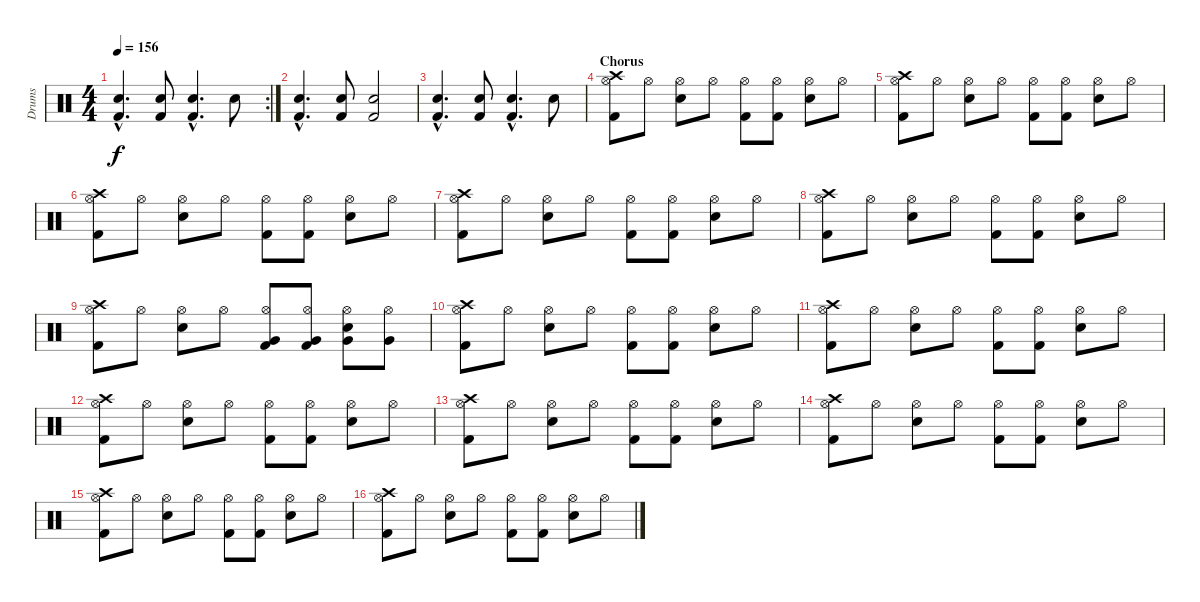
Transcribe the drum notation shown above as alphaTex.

\track ("Drums" "Drums") {instrument percussion}
\staff {score}
\articulation defaults
\rc 2
\ts (4 4)
\tempo 156
\clef neutral
\ks c
("Snare (hit) 2"{hac} "Kick (hit) 2"{hac}).4{d dy f} ("Snare (hit) 2" "Kick (hit) 2").8 ("Snare (hit) 2"{hac} "Kick (hit) 2"{hac}).4{d} "Snare (hit) 2".8 |
("Snare (hit) 2"{hac} "Kick (hit) 2"{hac}).4{d} ("Snare (hit) 2" "Kick (hit) 2").8 ("Snare (hit) 2" "Kick (hit) 2").2 |
("Snare (hit) 2"{hac} "Kick (hit) 2"{hac}).4{d} ("Snare (hit) 2" "Kick (hit) 2").8 ("Snare (hit) 2"{hac} "Kick (hit) 2"{hac}).4{d} "Snare (hit) 2".8 |
\section ("" "Chorus")
("Crash high (hit)" "Hi-Hat (open)" "Kick (hit) 2").8 "Hi-Hat (open)".8 ("Hi-Hat (open)" "Snare (hit) 2").8 "Hi-Hat (open)".8 ("Hi-Hat (open)" "Kick (hit) 2").8 ("Hi-Hat (open)" "Kick (hit) 2").8 ("Hi-Hat (open)" "Snare (hit) 2").8 "Hi-Hat (open)".8 |
("Crash high (hit)" "Hi-Hat (open)" "Kick (hit) 2").8 "Hi-Hat (open)".8 ("Hi-Hat (open)" "Snare (hit) 2").8 "Hi-Hat (open)".8 ("Hi-Hat (open)" "Kick (hit) 2").8 ("Hi-Hat (open)" "Kick (hit) 2").8 ("Hi-Hat (open)" "Snare (hit) 2").8 "Hi-Hat (open)".8 |
("Crash high (hit)" "Hi-Hat (open)" "Kick (hit) 2").8 "Hi-Hat (open)".8 ("Hi-Hat (open)" "Snare (hit) 2").8 "Hi-Hat (open)".8 ("Hi-Hat (open)" "Kick (hit) 2").8 ("Hi-Hat (open)" "Kick (hit) 2").8 ("Hi-Hat (open)" "Snare (hit) 2").8 "Hi-Hat (open)".8 |
("Crash high (hit)" "Hi-Hat (open)" "Kick (hit) 2").8 "Hi-Hat (open)".8 ("Hi-Hat (open)" "Snare (hit) 2").8 "Hi-Hat (open)".8 ("Hi-Hat (open)" "Kick (hit) 2").8 ("Hi-Hat (open)" "Kick (hit) 2").8 ("Hi-Hat (open)" "Snare (hit) 2").8 "Hi-Hat (open)".8 |
("Crash high (hit)" "Hi-Hat (open)" "Kick (hit) 2").8 "Hi-Hat (open)".8 ("Hi-Hat (open)" "Snare (hit) 2").8 "Hi-Hat (open)".8 ("Hi-Hat (open)" "Kick (hit) 2").8 ("Hi-Hat (open)" "Kick (hit) 2").8 ("Hi-Hat (open)" "Snare (hit) 2").8 "Hi-Hat (open)".8 |
("Crash high (hit)" "Hi-Hat (open)" "Kick (hit) 2").8 "Hi-Hat (open)".8 ("Hi-Hat (open)" "Snare (hit) 2").8 "Hi-Hat (open)".8 ("Hi-Hat (open)" "Very Low Tom (hit)" "Kick (hit) 2").8 ("Hi-Hat (open)" "Very Low Tom (hit)" "Kick (hit) 2").8 ("Hi-Hat (open)" "Snare (hit) 2" "Very Low Tom (hit)").8 ("Hi-Hat (open)" "Very Low Tom (hit)").8 |
("Crash high (hit)" "Hi-Hat (open)" "Kick (hit) 2").8 "Hi-Hat (open)".8 ("Hi-Hat (open)" "Snare (hit) 2").8 "Hi-Hat (open)".8 ("Hi-Hat (open)" "Kick (hit) 2").8 ("Hi-Hat (open)" "Kick (hit) 2").8 ("Hi-Hat (open)" "Snare (hit) 2").8 "Hi-Hat (open)".8 |
("Crash high (hit)" "Hi-Hat (open)" "Kick (hit) 2").8 "Hi-Hat (open)".8 ("Hi-Hat (open)" "Snare (hit) 2").8 "Hi-Hat (open)".8 ("Hi-Hat (open)" "Kick (hit) 2").8 ("Hi-Hat (open)" "Kick (hit) 2").8 ("Hi-Hat (open)" "Snare (hit) 2").8 "Hi-Hat (open)".8 |
("Crash high (hit)" "Hi-Hat (open)" "Kick (hit) 2").8 "Hi-Hat (open)".8 ("Hi-Hat (open)" "Snare (hit) 2").8 "Hi-Hat (open)".8 ("Hi-Hat (open)" "Kick (hit) 2").8 ("Hi-Hat (open)" "Kick (hit) 2").8 ("Hi-Hat (open)" "Snare (hit) 2").8 "Hi-Hat (open)".8 |
("Crash high (hit)" "Hi-Hat (open)" "Kick (hit) 2").8 "Hi-Hat (open)".8 ("Hi-Hat (open)" "Snare (hit) 2").8 "Hi-Hat (open)".8 ("Hi-Hat (open)" "Kick (hit) 2").8 ("Hi-Hat (open)" "Kick (hit) 2").8 ("Hi-Hat (open)" "Snare (hit) 2").8 "Hi-Hat (open)".8 |
("Crash high (hit)" "Hi-Hat (open)" "Kick (hit) 2").8 "Hi-Hat (open)".8 ("Hi-Hat (open)" "Snare (hit) 2").8 "Hi-Hat (open)".8 ("Hi-Hat (open)" "Kick (hit) 2").8 ("Hi-Hat (open)" "Kick (hit) 2").8 ("Hi-Hat (open)" "Snare (hit) 2").8 "Hi-Hat (open)".8 |
("Crash high (hit)" "Hi-Hat (open)" "Kick (hit) 2").8 "Hi-Hat (open)".8 ("Hi-Hat (open)" "Snare (hit) 2").8 "Hi-Hat (open)".8 ("Hi-Hat (open)" "Kick (hit) 2").8 ("Hi-Hat (open)" "Kick (hit) 2").8 ("Hi-Hat (open)" "Snare (hit) 2").8 "Hi-Hat (open)".8 |
("Crash high (hit)" "Hi-Hat (open)" "Kick (hit) 2").8 "Hi-Hat (open)".8 ("Hi-Hat (open)" "Snare (hit) 2").8 "Hi-Hat (open)".8 ("Hi-Hat (open)" "Kick (hit) 2").8 ("Hi-Hat (open)" "Kick (hit) 2").8 ("Hi-Hat (open)" "Snare (hit) 2").8 "Hi-Hat (open)".8
